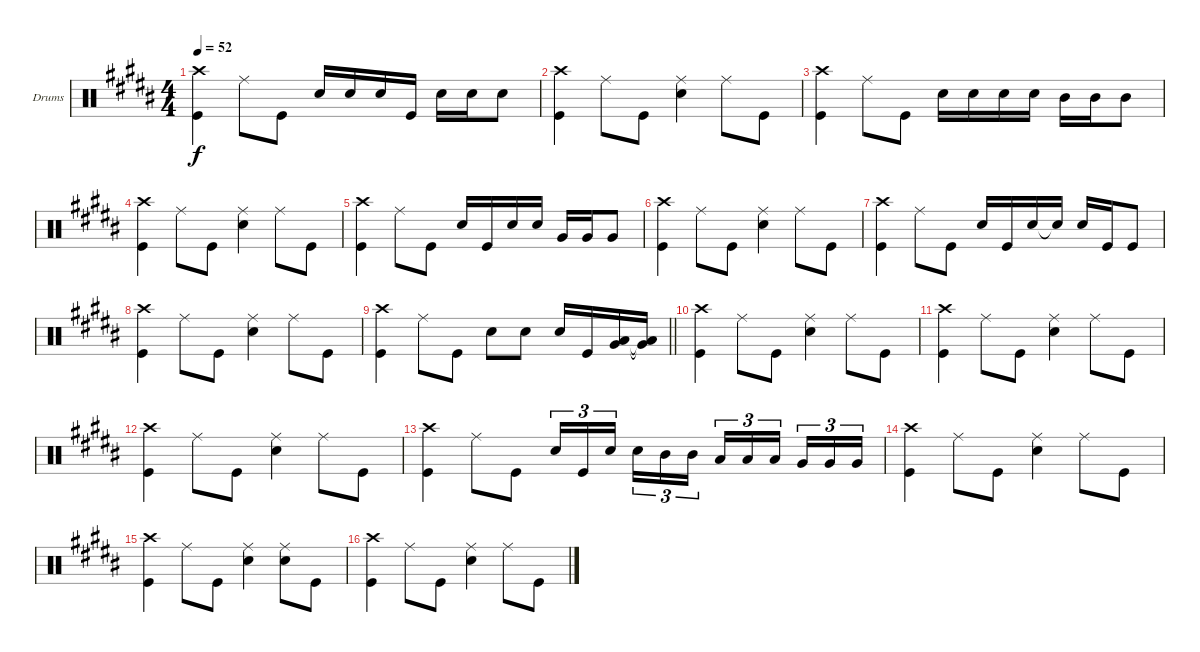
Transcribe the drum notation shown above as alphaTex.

\bracketExtendMode groupsimilarinstruments
\firstSystemTrackNameOrientation horizontal
\otherSystemsTrackNameOrientation horizontal
\track ("Drumkit" "Drums") {solo instrument percussion}
\staff {score}
\articulation defaults
\ts (4 4)
\tempo 52
\clef neutral
\ks g#minor
("Crash high (hit)" "Kick (hit)").4{dy f} "Ride (middle)".8 "Kick (hit)".8 "Snare (hit) 2".16 "Snare (hit) 2".16 "Snare (hit) 2".16 "Kick (hit)".16 "Snare (hit) 2".16 "Snare (hit) 2".16 "Snare (hit) 2".8 |
("Crash high (hit)" "Kick (hit)").4 "Ride (middle)".8 "Kick (hit)".8 ("Ride (middle)" "Snare (hit) 2").4 "Ride (middle)".8 "Kick (hit)".8 |
("Crash high (hit)" "Kick (hit)").4 "Ride (middle)".8 "Kick (hit)".8 "Snare (hit) 2".16 "Snare (hit) 2".16 "Snare (hit) 2".16 "Snare (hit) 2".16 "Mid Tom (hit)".16 "Mid Tom (hit)".16 "Mid Tom (hit)".8 |
("Crash high (hit)" "Kick (hit)").4 "Ride (middle)".8 "Kick (hit)".8 ("Ride (middle)" "Snare (hit) 2").4 "Ride (middle)".8 "Kick (hit)".8 |
("Crash high (hit)" "Kick (hit)").4 "Ride (middle)".8 "Kick (hit)".8 "Snare (hit) 2".16 "Kick (hit)".16 "Snare (hit) 2".16 "Snare (hit) 2".16 "Very Low Tom (hit)".16 "Very Low Tom (hit)".16 "Very Low Tom (hit)".8 |
("Crash high (hit)" "Kick (hit)").4 "Ride (middle)".8 "Kick (hit)".8 ("Ride (middle)" "Snare (hit) 2").4 "Ride (middle)".8 "Kick (hit)".8 |
("Crash high (hit)" "Kick (hit)").4 "Ride (middle)".8 "Kick (hit)".8 "Snare (hit) 2".16 "Kick (hit)".16 "Snare (hit) 2".16 "Snare (hit) 2"{t}.16 "Snare (hit) 2".16 "Kick (hit)".16 "Kick (hit)".8 |
("Crash high (hit)" "Kick (hit)").4 "Ride (middle)".8 "Kick (hit)".8 ("Ride (middle)" "Snare (hit) 2").4 "Ride (middle)".8 "Kick (hit)".8 |
\barLineRight lightlight
("Crash high (hit)" "Kick (hit)").4 "Ride (middle)".8 "Kick (hit)".8 "Snare (hit) 2".8 "Snare (hit) 2".8 "Snare (hit) 2".16 "Kick (hit)".16 ("Low Tom (hit)" "Very Low Tom (hit)").16 ("Low Tom (hit)"{t} "Very Low Tom (hit)"{t}).16 |
("Crash high (hit)" "Kick (hit)").4 "Ride (middle)".8 "Kick (hit)".8 ("Ride (middle)" "Snare (hit) 2").4 "Ride (middle)".8 "Kick (hit)".8 |
("Crash high (hit)" "Kick (hit)").4 "Ride (middle)".8 "Kick (hit)".8 ("Ride (middle)" "Snare (hit) 2").4 "Ride (middle)".8 "Kick (hit)".8 |
("Crash high (hit)" "Kick (hit)").4 "Ride (middle)".8 "Kick (hit)".8 ("Ride (middle)" "Snare (hit) 2").4 "Ride (middle)".8 "Kick (hit)".8 |
("Crash high (hit)" "Kick (hit)").4 "Ride (middle)".8 "Kick (hit)".8 "Snare (hit) 2".16{tu (3 2)} "Kick (hit)".16{tu (3 2)} "Snare (hit) 2".16{tu (3 2)} "Snare (hit) 2".16{tu (3 2)} "Mid Tom (hit)".16{tu (3 2)} "Mid Tom (hit)".16{tu (3 2)} "Low Tom (hit)".16{tu (3 2)} "Low Tom (hit)".16{tu (3 2)} "Low Tom (hit)".16{tu (3 2)} "Very Low Tom (hit)".16{tu (3 2)} "Very Low Tom (hit)".16{tu (3 2)} "Very Low Tom (hit)".16{tu (3 2)} |
("Crash high (hit)" "Kick (hit)").4 "Ride (middle)".8 "Kick (hit)".8 ("Ride (middle)" "Snare (hit) 2").4 "Ride (middle)".8 "Kick (hit)".8 |
("Crash high (hit)" "Kick (hit)").4 "Ride (middle)".8 "Kick (hit)".8 ("Ride (middle)" "Snare (hit) 2").4 ("Ride (middle)" "Snare (hit) 2").8 "Kick (hit)".8 |
("Crash high (hit)" "Kick (hit)").4 "Ride (middle)".8 "Kick (hit)".8 ("Ride (middle)" "Snare (hit) 2").4 "Ride (middle)".8 "Kick (hit)".8
